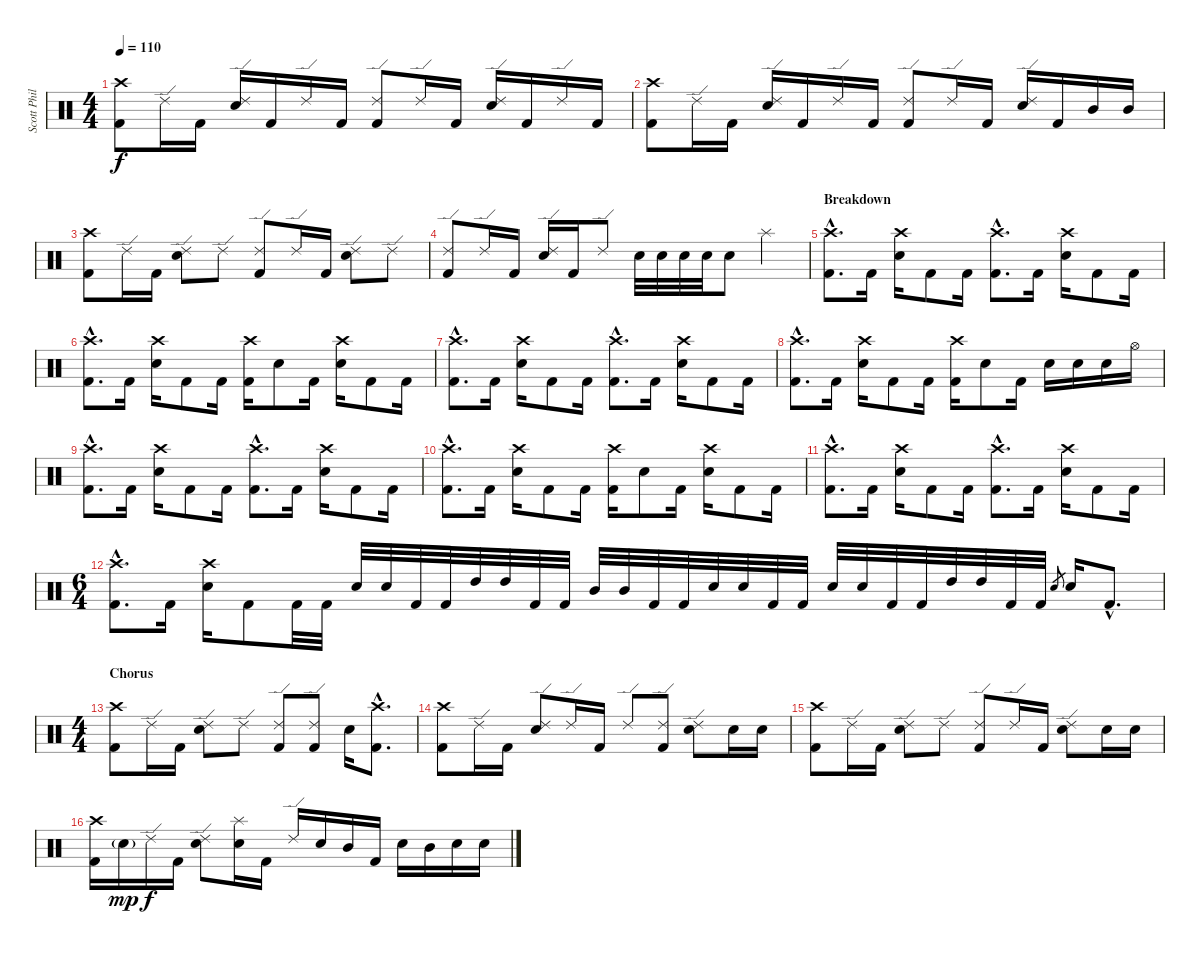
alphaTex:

\track ("Scott Phillips" "Scott Phil") {instrument percussion}
\staff {score}
\articulation defaults
\ts (4 4)
\tempo 110
\clef neutral
\ks c
("Crash high (hit)" "Kick (hit) 2").8{dy f} "Ride (edge) 2".16 "Kick (hit) 2".16 ("Ride (edge) 2" "Snare (hit) 2").16 "Kick (hit) 2".16 "Ride (edge) 2".16 "Kick (hit) 2".16 ("Ride (edge) 2" "Kick (hit) 2").8 "Ride (edge) 2".16 "Kick (hit) 2".16 ("Ride (edge) 2" "Snare (hit) 2").16 "Kick (hit) 2".16 "Ride (edge) 2".16 "Kick (hit) 2".16 |
("Crash high (hit)" "Kick (hit) 2").8 "Ride (edge) 2".16 "Kick (hit) 2".16 ("Ride (edge) 2" "Snare (hit) 2").16 "Kick (hit) 2".16 "Ride (edge) 2".16 "Kick (hit) 2".16 ("Ride (edge) 2" "Kick (hit) 2").8 "Ride (edge) 2".16 "Kick (hit) 2".16 ("Ride (edge) 2" "Snare (hit) 2").16 "Kick (hit) 2".16 "Mid Tom (hit)".16 "Mid Tom (hit)".16 |
("Crash high (hit)" "Kick (hit) 2").8 "Ride (edge) 2".16 "Kick (hit) 2".16 ("Ride (edge) 2" "Snare (hit) 2").8 "Ride (edge) 2".8 ("Ride (edge) 2" "Kick (hit) 2").8 "Ride (edge) 2".16 "Kick (hit) 2".16 ("Ride (edge) 2" "Snare (hit) 2").8 "Ride (edge) 2".8 |
("Ride (edge) 2" "Kick (hit) 2").8 "Ride (edge) 2".16 "Kick (hit) 2".16 ("Ride (edge) 2" "Snare (hit) 2").16 "Kick (hit) 2".16 "Ride (edge) 2".8 "Snare (hit) 2".32 "Snare (hit) 2".32 "Snare (hit) 2".32 "Snare (hit) 2".32 "Snare (hit) 2".8 "Splash (hit)".4 |
\section ("" "Breakdown")
("Crash high (hit)"{hac} "Kick (hit) 2"{hac}).8{d} "Kick (hit) 2".16 ("Crash high (hit)" "Snare (hit) 2").16 "Kick (hit) 2".8 "Kick (hit) 2".16 ("Crash high (hit)"{hac} "Kick (hit) 2"{hac}).8{d} "Kick (hit) 2".16 ("Crash high (hit)" "Snare (hit) 2").16 "Kick (hit) 2".8 "Kick (hit) 2".16 |
("Crash high (hit)"{hac} "Kick (hit) 2"{hac}).8{d} "Kick (hit) 2".16 ("Crash high (hit)" "Snare (hit) 2").16 "Kick (hit) 2".8 "Kick (hit) 2".16 ("Crash high (hit)" "Kick (hit) 2").16 "Snare (hit) 2".8 "Kick (hit) 2".16 ("Crash high (hit)" "Snare (hit) 2").16 "Kick (hit) 2".8 "Kick (hit) 2".16 |
("Crash high (hit)"{hac} "Kick (hit) 2"{hac}).8{d} "Kick (hit) 2".16 ("Crash high (hit)" "Snare (hit) 2").16 "Kick (hit) 2".8 "Kick (hit) 2".16 ("Crash high (hit)"{hac} "Kick (hit) 2"{hac}).8{d} "Kick (hit) 2".16 ("Crash high (hit)" "Snare (hit) 2").16 "Kick (hit) 2".8 "Kick (hit) 2".16 |
("Crash high (hit)"{hac} "Kick (hit) 2"{hac}).8{d} "Kick (hit) 2".16 ("Crash high (hit)" "Snare (hit) 2").16 "Kick (hit) 2".8 "Kick (hit) 2".16 ("Crash high (hit)" "Kick (hit) 2").16 "Snare (hit) 2".8 "Kick (hit) 2".16 "Snare (hit) 2".16 "Snare (hit) 2".16 "Snare (hit) 2".16 "Hi-Hat (open)".16 |
("Crash high (hit)"{hac} "Kick (hit) 2"{hac}).8{d} "Kick (hit) 2".16 ("Crash high (hit)" "Snare (hit) 2").16 "Kick (hit) 2".8 "Kick (hit) 2".16 ("Crash high (hit)"{hac} "Kick (hit) 2"{hac}).8{d} "Kick (hit) 2".16 ("Crash high (hit)" "Snare (hit) 2").16 "Kick (hit) 2".8 "Kick (hit) 2".16 |
("Crash high (hit)"{hac} "Kick (hit) 2"{hac}).8{d} "Kick (hit) 2".16 ("Crash high (hit)" "Snare (hit) 2").16 "Kick (hit) 2".8 "Kick (hit) 2".16 ("Crash high (hit)" "Kick (hit) 2").16 "Snare (hit) 2".8 "Kick (hit) 2".16 ("Crash high (hit)" "Snare (hit) 2").16 "Kick (hit) 2".8 "Kick (hit) 2".16 |
("Crash high (hit)"{hac} "Kick (hit) 2"{hac}).8{d} "Kick (hit) 2".16 ("Crash high (hit)" "Snare (hit) 2").16 "Kick (hit) 2".8 "Kick (hit) 2".16 ("Crash high (hit)"{hac} "Kick (hit) 2"{hac}).8{d} "Kick (hit) 2".16 ("Crash high (hit)" "Snare (hit) 2").16 "Kick (hit) 2".8 "Kick (hit) 2".16 |
\ts (6 4)
("Crash high (hit)"{hac} "Kick (hit) 2"{hac}).8{d} "Kick (hit) 2".16 ("Crash high (hit)" "Snare (hit) 2").16 "Kick (hit) 2".8 "Kick (hit) 2".32 "Kick (hit) 2".32 "Snare (hit) 2".32 "Snare (hit) 2".32 "Kick (hit) 2".32 "Kick (hit) 2".32 "High Tom (hit)".32 "High Tom (hit)".32 "Kick (hit) 2".32 "Kick (hit) 2".32 "Mid Tom (hit)".32 "Mid Tom (hit)".32 "Kick (hit) 2".32 "Kick (hit) 2".32 "Snare (hit) 2".32 "Snare (hit) 2".32 "Kick (hit) 2".32 "Kick (hit) 2".32 "Snare (hit) 2".32 "Snare (hit) 2".32 "Kick (hit) 2".32 "Kick (hit) 2".32 "High Tom (hit)".32 "High Tom (hit)".32 "Kick (hit) 2".32 "Kick (hit) 2".32 "Snare (hit) 2".8{gr} "Snare (hit) 2".16 "Kick (hit) 2"{hac}.8{d} |
\ts (4 4)
\section ("" "Chorus")
("Crash high (hit)" "Kick (hit) 2").8 "Ride (edge) 2".16 "Kick (hit) 2".16 ("Ride (edge) 2" "Snare (hit) 2").8 "Ride (edge) 2".8 ("Ride (edge) 2" "Kick (hit) 2").8 ("Ride (edge) 2" "Kick (hit) 2").8 "Snare (hit) 2".16 ("Crash high (hit)"{hac} "Kick (hit) 2"{hac}).8{d} |
("Crash high (hit)" "Kick (hit) 2").8 "Ride (edge) 2".16 "Kick (hit) 2".16 ("Ride (edge) 2" "Snare (hit) 2").8 "Ride (edge) 2".16 "Kick (hit) 2".16 "Ride (edge) 2".8 ("Ride (edge) 2" "Kick (hit) 2").8 ("Ride (edge) 2" "Snare (hit) 2").8 "Snare (hit) 2".16 "Snare (hit) 2".16 |
("Crash high (hit)" "Kick (hit) 2").8 "Ride (edge) 2".16 "Kick (hit) 2".16 ("Ride (edge) 2" "Snare (hit) 2").8 "Ride (edge) 2".8 ("Ride (edge) 2" "Kick (hit) 2").8 "Ride (edge) 2".16 "Kick (hit) 2".16 ("Ride (edge) 2" "Snare (hit) 2").8 "Snare (hit) 2".16 "Snare (hit) 2".16 |
("Crash high (hit)" "Kick (hit) 2").16 "Snare (hit) 2"{g}.16{dy mp} "Ride (edge) 2".16{dy f} "Kick (hit) 2".16 ("Ride (edge) 2" "Snare (hit) 2").8 ("Splash (hit)" "Snare (hit) 2").16 "Kick (hit) 2".16 "Ride (edge) 2".16 "Snare (hit) 2".16 "Mid Tom (hit)".16 "Kick (hit) 2".16 "Snare (hit) 2".16 "Mid Tom (hit)".16 "Snare (hit) 2".16 "Snare (hit) 2".16
